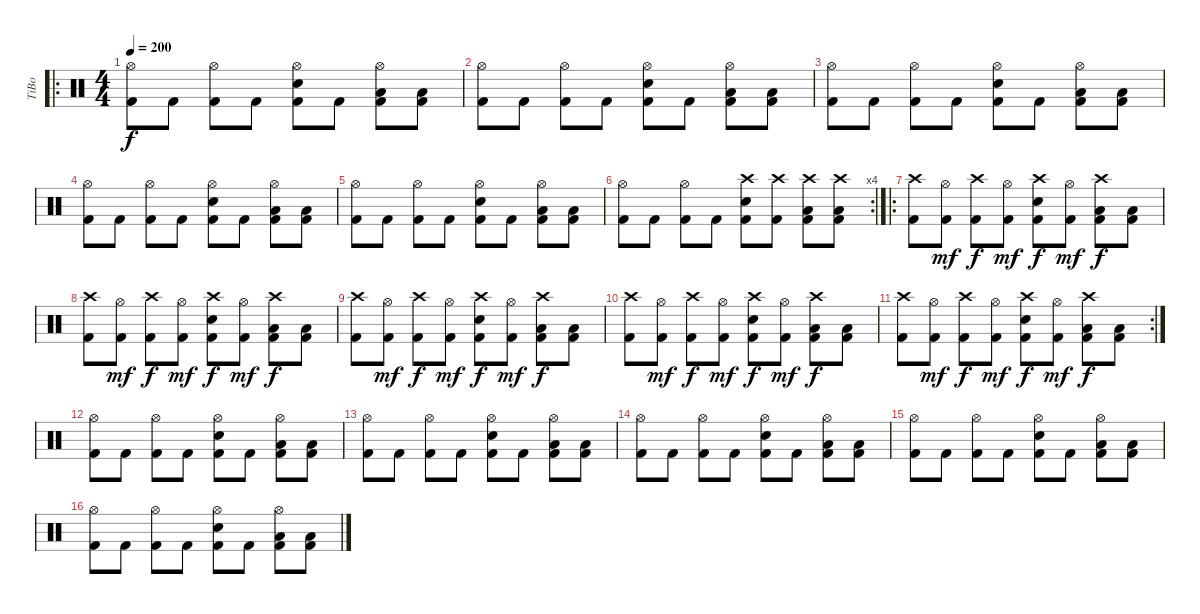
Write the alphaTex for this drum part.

\track ("TiBo" "TiBo") {instrument percussion}
\staff {score}
\articulation defaults
\ro
\ts (4 4)
\tempo 200
\clef neutral
\ks c
("Hi-Hat (open)" "Kick (hit) 2").8{dy f} "Kick (hit) 2".8 ("Hi-Hat (open)" "Kick (hit) 2").8 "Kick (hit) 2".8 ("Hi-Hat (open)" "Snare (hit) 2" "Kick (hit) 2").8 "Kick (hit) 2".8 ("Hi-Hat (open)" "Low Tom (hit)" "Kick (hit) 2").8 ("Low Tom (hit)" "Kick (hit) 2").8 |
("Hi-Hat (open)" "Kick (hit) 2").8 "Kick (hit) 2".8 ("Hi-Hat (open)" "Kick (hit) 2").8 "Kick (hit) 2".8 ("Hi-Hat (open)" "Snare (hit) 2" "Kick (hit) 2").8 "Kick (hit) 2".8 ("Hi-Hat (open)" "Low Tom (hit)" "Kick (hit) 2").8 ("Low Tom (hit)" "Kick (hit) 2").8 |
("Hi-Hat (open)" "Kick (hit) 2").8 "Kick (hit) 2".8 ("Hi-Hat (open)" "Kick (hit) 2").8 "Kick (hit) 2".8 ("Hi-Hat (open)" "Snare (hit) 2" "Kick (hit) 2").8 "Kick (hit) 2".8 ("Hi-Hat (open)" "Low Tom (hit)" "Kick (hit) 2").8 ("Low Tom (hit)" "Kick (hit) 2").8 |
("Hi-Hat (open)" "Kick (hit) 2").8 "Kick (hit) 2".8 ("Hi-Hat (open)" "Kick (hit) 2").8 "Kick (hit) 2".8 ("Hi-Hat (open)" "Snare (hit) 2" "Kick (hit) 2").8 "Kick (hit) 2".8 ("Hi-Hat (open)" "Low Tom (hit)" "Kick (hit) 2").8 ("Low Tom (hit)" "Kick (hit) 2").8 |
("Hi-Hat (open)" "Kick (hit) 2").8 "Kick (hit) 2".8 ("Hi-Hat (open)" "Kick (hit) 2").8 "Kick (hit) 2".8 ("Hi-Hat (open)" "Snare (hit) 2" "Kick (hit) 2").8 "Kick (hit) 2".8 ("Hi-Hat (open)" "Low Tom (hit)" "Kick (hit) 2").8 ("Low Tom (hit)" "Kick (hit) 2").8 |
\rc 4
("Hi-Hat (open)" "Kick (hit) 2").8 "Kick (hit) 2".8 ("Hi-Hat (open)" "Kick (hit) 2").8 "Kick (hit) 2".8 ("Crash high (hit)" "Snare (hit) 2" "Kick (hit) 2").8 ("Crash high (hit)" "Kick (hit) 2").8 ("Crash high (hit)" "Low Tom (hit)" "Kick (hit) 2").8 ("Crash high (hit)" "Low Tom (hit)" "Kick (hit) 2").8 |
\ro
("Crash high (hit)" "Kick (hit) 2").8 ("Hi-Hat (open)" "Kick (hit) 2").8{dy mf} ("Crash high (hit)" "Kick (hit) 2").8{dy f} ("Hi-Hat (open)" "Kick (hit) 2").8{dy mf} ("Crash high (hit)" "Snare (hit) 2" "Kick (hit) 2").8{dy f} ("Hi-Hat (open)" "Kick (hit) 2").8{dy mf} ("Crash high (hit)" "Low Tom (hit)" "Kick (hit) 2").8{dy f} ("Low Tom (hit)" "Kick (hit) 2").8 |
("Crash high (hit)" "Kick (hit) 2").8 ("Hi-Hat (open)" "Kick (hit) 2").8{dy mf} ("Crash high (hit)" "Kick (hit) 2").8{dy f} ("Hi-Hat (open)" "Kick (hit) 2").8{dy mf} ("Crash high (hit)" "Snare (hit) 2" "Kick (hit) 2").8{dy f} ("Hi-Hat (open)" "Kick (hit) 2").8{dy mf} ("Crash high (hit)" "Low Tom (hit)" "Kick (hit) 2").8{dy f} ("Low Tom (hit)" "Kick (hit) 2").8 |
("Crash high (hit)" "Kick (hit) 2").8 ("Hi-Hat (open)" "Kick (hit) 2").8{dy mf} ("Crash high (hit)" "Kick (hit) 2").8{dy f} ("Hi-Hat (open)" "Kick (hit) 2").8{dy mf} ("Crash high (hit)" "Snare (hit) 2" "Kick (hit) 2").8{dy f} ("Hi-Hat (open)" "Kick (hit) 2").8{dy mf} ("Crash high (hit)" "Low Tom (hit)" "Kick (hit) 2").8{dy f} ("Low Tom (hit)" "Kick (hit) 2").8 |
("Crash high (hit)" "Kick (hit) 2").8 ("Hi-Hat (open)" "Kick (hit) 2").8{dy mf} ("Crash high (hit)" "Kick (hit) 2").8{dy f} ("Hi-Hat (open)" "Kick (hit) 2").8{dy mf} ("Crash high (hit)" "Snare (hit) 2" "Kick (hit) 2").8{dy f} ("Hi-Hat (open)" "Kick (hit) 2").8{dy mf} ("Crash high (hit)" "Low Tom (hit)" "Kick (hit) 2").8{dy f} ("Low Tom (hit)" "Kick (hit) 2").8 |
\rc 2
("Crash high (hit)" "Kick (hit) 2").8 ("Hi-Hat (open)" "Kick (hit) 2").8{dy mf} ("Crash high (hit)" "Kick (hit) 2").8{dy f} ("Hi-Hat (open)" "Kick (hit) 2").8{dy mf} ("Crash high (hit)" "Snare (hit) 2" "Kick (hit) 2").8{dy f} ("Hi-Hat (open)" "Kick (hit) 2").8{dy mf} ("Crash high (hit)" "Low Tom (hit)" "Kick (hit) 2").8{dy f} ("Low Tom (hit)" "Kick (hit) 2").8 |
("Hi-Hat (open)" "Kick (hit) 2").8 "Kick (hit) 2".8 ("Hi-Hat (open)" "Kick (hit) 2").8 "Kick (hit) 2".8 ("Hi-Hat (open)" "Snare (hit) 2" "Kick (hit) 2").8 "Kick (hit) 2".8 ("Hi-Hat (open)" "Low Tom (hit)" "Kick (hit) 2").8 ("Low Tom (hit)" "Kick (hit) 2").8 |
("Hi-Hat (open)" "Kick (hit) 2").8 "Kick (hit) 2".8 ("Hi-Hat (open)" "Kick (hit) 2").8 "Kick (hit) 2".8 ("Hi-Hat (open)" "Snare (hit) 2" "Kick (hit) 2").8 "Kick (hit) 2".8 ("Hi-Hat (open)" "Low Tom (hit)" "Kick (hit) 2").8 ("Low Tom (hit)" "Kick (hit) 2").8 |
("Hi-Hat (open)" "Kick (hit) 2").8 "Kick (hit) 2".8 ("Hi-Hat (open)" "Kick (hit) 2").8 "Kick (hit) 2".8 ("Hi-Hat (open)" "Snare (hit) 2" "Kick (hit) 2").8 "Kick (hit) 2".8 ("Hi-Hat (open)" "Low Tom (hit)" "Kick (hit) 2").8 ("Low Tom (hit)" "Kick (hit) 2").8 |
("Hi-Hat (open)" "Kick (hit) 2").8 "Kick (hit) 2".8 ("Hi-Hat (open)" "Kick (hit) 2").8 "Kick (hit) 2".8 ("Hi-Hat (open)" "Snare (hit) 2" "Kick (hit) 2").8 "Kick (hit) 2".8 ("Hi-Hat (open)" "Low Tom (hit)" "Kick (hit) 2").8 ("Low Tom (hit)" "Kick (hit) 2").8 |
("Hi-Hat (open)" "Kick (hit) 2").8 "Kick (hit) 2".8 ("Hi-Hat (open)" "Kick (hit) 2").8 "Kick (hit) 2".8 ("Hi-Hat (open)" "Snare (hit) 2" "Kick (hit) 2").8 "Kick (hit) 2".8 ("Hi-Hat (open)" "Low Tom (hit)" "Kick (hit) 2").8 ("Low Tom (hit)" "Kick (hit) 2").8
